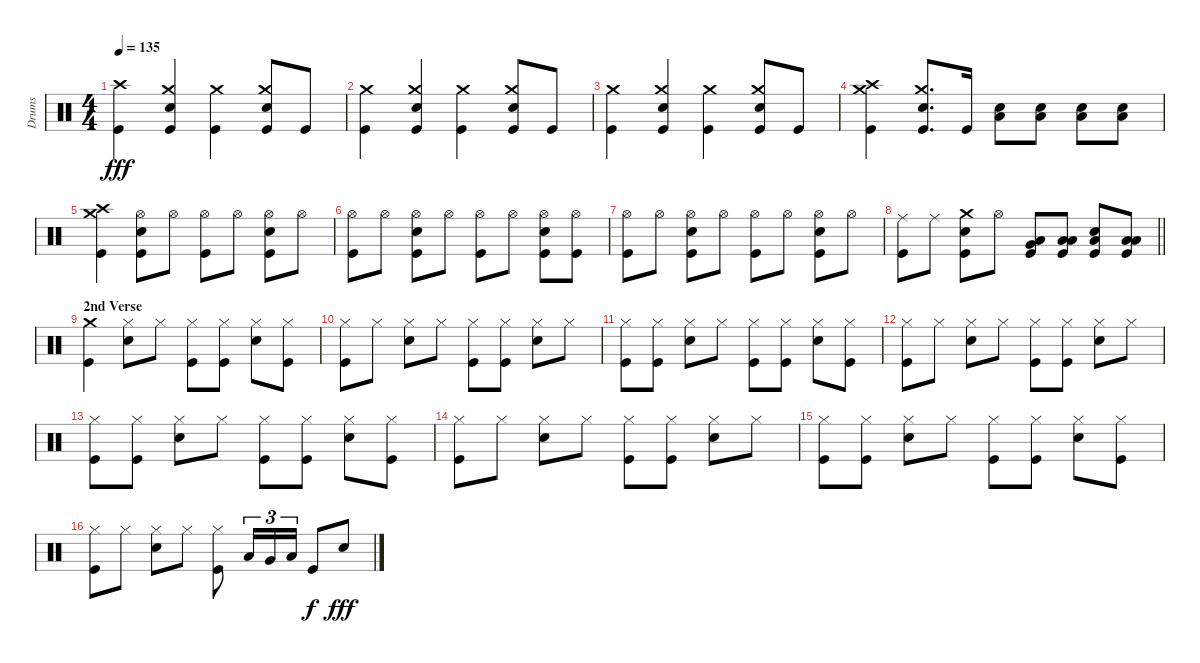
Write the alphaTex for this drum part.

\track ("Drums" "Drums") {instrument percussion}
\staff {score}
\articulation defaults
\ts (4 4)
\tempo 135
\clef neutral
\ks c
("Crash high (hit)" "Kick (hit)").4{dy fff} ("Crash medium (hit)" "Snare (hit) 2" "Kick (hit)").4 ("Crash medium (hit)" "Kick (hit)").4 ("Crash medium (hit)" "Snare (hit) 2" "Kick (hit)").8 "Kick (hit)".8 |
("Crash medium (hit)" "Kick (hit)").4 ("Crash medium (hit)" "Snare (hit) 2" "Kick (hit)").4 ("Crash medium (hit)" "Kick (hit)").4 ("Crash medium (hit)" "Snare (hit) 2" "Kick (hit)").8 "Kick (hit)".8 |
("Crash medium (hit)" "Kick (hit)").4 ("Crash medium (hit)" "Snare (hit) 2" "Kick (hit)").4 ("Crash medium (hit)" "Kick (hit)").4 ("Crash medium (hit)" "Snare (hit) 2" "Kick (hit)").8 "Kick (hit)".8 |
("Crash medium (hit)" "Crash high (hit)" "Kick (hit)").4 ("Crash medium (hit)" "Snare (hit) 2" "Kick (hit)").8{d} "Kick (hit)".16 ("Low Floor Tom (hit)" "Snare (hit) 2").8 ("Low Floor Tom (hit)" "Snare (hit) 2").8 ("Low Floor Tom (hit)" "Snare (hit) 2").8 ("Low Floor Tom (hit)" "Snare (hit) 2").8 |
("Crash medium (hit)" "Crash high (hit)" "Kick (hit)").4 ("Hi-Hat (open)" "Snare (hit) 2" "Kick (hit)").8 "Hi-Hat (open)".8 ("Hi-Hat (open)" "Kick (hit)").8 "Hi-Hat (open)".8 ("Hi-Hat (open)" "Snare (hit) 2" "Kick (hit)").8 "Hi-Hat (open)".8 |
("Hi-Hat (open)" "Kick (hit)").8 "Hi-Hat (open)".8 ("Hi-Hat (open)" "Snare (hit) 2" "Kick (hit)").8 "Hi-Hat (open)".8 ("Hi-Hat (open)" "Kick (hit)").8 "Hi-Hat (open)".8 ("Hi-Hat (open)" "Snare (hit) 2" "Kick (hit)").8 ("Hi-Hat (open)" "Kick (hit)").8 |
("Hi-Hat (open)" "Kick (hit)").8 "Hi-Hat (open)".8 ("Hi-Hat (open)" "Snare (hit) 2" "Kick (hit)").8 "Hi-Hat (open)".8 ("Hi-Hat (open)" "Kick (hit)").8 "Hi-Hat (open)".8 ("Hi-Hat (open)" "Snare (hit) 2" "Kick (hit)").8 "Hi-Hat (open)".8 |
\barLineRight lightlight
("Ride (middle)" "Kick (hit)").8 "Ride (middle)".8 ("Crash medium (hit)" "Snare (hit) 2" "Kick (hit)").8 "Hi-Hat (open)".8 ("Very Low Tom (hit)" "Low Floor Tom (hit)" "Kick (hit)").8 ("Low Tom (hit)" "Low Floor Tom (hit)" "Kick (hit)").8 ("Low Floor Tom (hit)" "Snare (hit) 2" "Kick (hit)").8 ("Low Tom (hit)" "Low Floor Tom (hit)" "Kick (hit)").8 |
\section ("" "2nd Verse")
("Crash medium (hit)" "Kick (hit)").4 ("Hi-Hat (closed)" "Snare (hit) 2").8 "Hi-Hat (closed)".8 ("Hi-Hat (closed)" "Kick (hit)").8 ("Hi-Hat (closed)" "Kick (hit)").8 ("Hi-Hat (closed)" "Snare (hit) 2").8 ("Hi-Hat (closed)" "Kick (hit)").8 |
("Hi-Hat (closed)" "Kick (hit)").8 "Hi-Hat (closed)".8 ("Hi-Hat (closed)" "Snare (hit) 2").8 "Hi-Hat (closed)".8 ("Hi-Hat (closed)" "Kick (hit)").8 ("Hi-Hat (closed)" "Kick (hit)").8 ("Hi-Hat (closed)" "Snare (hit) 2").8 "Hi-Hat (closed)".8 |
("Hi-Hat (closed)" "Kick (hit)").8 ("Hi-Hat (closed)" "Kick (hit)").8 ("Hi-Hat (closed)" "Snare (hit) 2").8 "Hi-Hat (closed)".8 ("Hi-Hat (closed)" "Kick (hit)").8 ("Hi-Hat (closed)" "Kick (hit)").8 ("Hi-Hat (closed)" "Snare (hit) 2").8 ("Hi-Hat (closed)" "Kick (hit)").8 |
("Hi-Hat (closed)" "Kick (hit)").8 "Hi-Hat (closed)".8 ("Hi-Hat (closed)" "Snare (hit) 2").8 "Hi-Hat (closed)".8 ("Hi-Hat (closed)" "Kick (hit)").8 ("Hi-Hat (closed)" "Kick (hit)").8 ("Hi-Hat (closed)" "Snare (hit) 2").8 "Hi-Hat (closed)".8 |
("Hi-Hat (closed)" "Kick (hit)").8 ("Hi-Hat (closed)" "Kick (hit)").8 ("Hi-Hat (closed)" "Snare (hit) 2").8 "Hi-Hat (closed)".8 ("Hi-Hat (closed)" "Kick (hit)").8 ("Hi-Hat (closed)" "Kick (hit)").8 ("Hi-Hat (closed)" "Snare (hit) 2").8 ("Hi-Hat (closed)" "Kick (hit)").8 |
("Hi-Hat (closed)" "Kick (hit)").8 "Hi-Hat (closed)".8 ("Hi-Hat (closed)" "Snare (hit) 2").8 "Hi-Hat (closed)".8 ("Hi-Hat (closed)" "Kick (hit)").8 ("Hi-Hat (closed)" "Kick (hit)").8 ("Hi-Hat (closed)" "Snare (hit) 2").8 "Hi-Hat (closed)".8 |
("Hi-Hat (closed)" "Kick (hit)").8 ("Hi-Hat (closed)" "Kick (hit)").8 ("Hi-Hat (closed)" "Snare (hit) 2").8 "Hi-Hat (closed)".8 ("Hi-Hat (closed)" "Kick (hit)").8 ("Hi-Hat (closed)" "Kick (hit)").8 ("Hi-Hat (closed)" "Snare (hit) 2").8 ("Hi-Hat (closed)" "Kick (hit)").8 |
("Hi-Hat (closed)" "Kick (hit)").8 "Hi-Hat (closed)".8 ("Hi-Hat (closed)" "Snare (hit) 2").8 "Hi-Hat (closed)".8 ("Hi-Hat (closed)" "Kick (hit)").8 "Low Tom (hit)".16{tu (3 2)} "Very Low Tom (hit)".16{tu (3 2)} "Low Floor Tom (hit)".16{tu (3 2)} "Kick (hit)".8{dy f} "Snare (hit) 2".8{dy fff}
